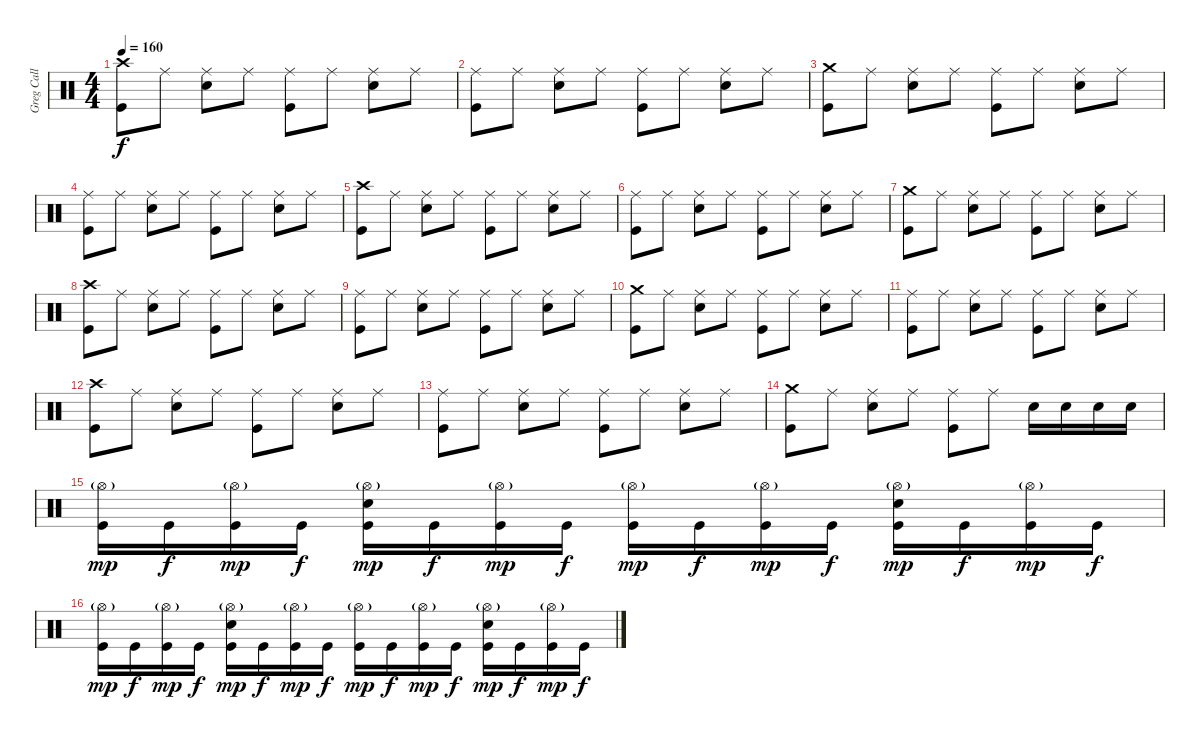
\track ("Greg Call (Drums)" "Greg Call ") {instrument percussion}
\staff {score}
\articulation defaults
\ts (4 4)
\tempo 160
\clef neutral
\ks c
("Crash high (hit)" "Kick (hit)").8{dy f} "Ride (middle)".8 ("Ride (middle)" "Electric Snare (hit)").8 "Ride (middle)".8 ("Ride (middle)" "Kick (hit)").8 "Ride (middle)".8 ("Ride (middle)" "Electric Snare (hit)").8 "Ride (middle)".8 |
("Ride (middle)" "Kick (hit)").8 "Ride (middle)".8 ("Ride (middle)" "Electric Snare (hit)").8 "Ride (middle)".8 ("Ride (middle)" "Kick (hit)").8 "Ride (middle)".8 ("Ride (middle)" "Electric Snare (hit)").8 "Ride (middle)".8 |
("Crash medium (hit)" "Kick (hit)").8 "Ride (middle)".8 ("Ride (middle)" "Electric Snare (hit)").8 "Ride (middle)".8 ("Ride (middle)" "Kick (hit)").8 "Ride (middle)".8 ("Ride (middle)" "Electric Snare (hit)").8 "Ride (middle)".8 |
("Ride (middle)" "Kick (hit)").8 "Ride (middle)".8 ("Ride (middle)" "Electric Snare (hit)").8 "Ride (middle)".8 ("Ride (middle)" "Kick (hit)").8 "Ride (middle)".8 ("Ride (middle)" "Electric Snare (hit)").8 "Ride (middle)".8 |
("Crash high (hit)" "Kick (hit)").8 "Ride (middle)".8 ("Ride (middle)" "Electric Snare (hit)").8 "Ride (middle)".8 ("Ride (middle)" "Kick (hit)").8 "Ride (middle)".8 ("Ride (middle)" "Electric Snare (hit)").8 "Ride (middle)".8 |
("Ride (middle)" "Kick (hit)").8 "Ride (middle)".8 ("Ride (middle)" "Electric Snare (hit)").8 "Ride (middle)".8 ("Ride (middle)" "Kick (hit)").8 "Ride (middle)".8 ("Ride (middle)" "Electric Snare (hit)").8 "Ride (middle)".8 |
("Crash medium (hit)" "Kick (hit)").8 "Ride (middle)".8 ("Ride (middle)" "Electric Snare (hit)").8 "Ride (middle)".8 ("Ride (middle)" "Kick (hit)").8 "Ride (middle)".8 ("Ride (middle)" "Electric Snare (hit)").8 "Ride (middle)".8 |
("Crash high (hit)" "Kick (hit)").8 "Ride (middle)".8 ("Ride (middle)" "Electric Snare (hit)").8 "Ride (middle)".8 ("Ride (middle)" "Kick (hit)").8 "Ride (middle)".8 ("Ride (middle)" "Electric Snare (hit)").8 "Ride (middle)".8 |
("Ride (middle)" "Kick (hit)").8 "Ride (middle)".8 ("Ride (middle)" "Electric Snare (hit)").8 "Ride (middle)".8 ("Ride (middle)" "Kick (hit)").8 "Ride (middle)".8 ("Ride (middle)" "Electric Snare (hit)").8 "Ride (middle)".8 |
("Crash medium (hit)" "Kick (hit)").8 "Ride (middle)".8 ("Ride (middle)" "Electric Snare (hit)").8 "Ride (middle)".8 ("Ride (middle)" "Kick (hit)").8 "Ride (middle)".8 ("Ride (middle)" "Electric Snare (hit)").8 "Ride (middle)".8 |
("Ride (middle)" "Kick (hit)").8 "Ride (middle)".8 ("Ride (middle)" "Electric Snare (hit)").8 "Ride (middle)".8 ("Ride (middle)" "Kick (hit)").8 "Ride (middle)".8 ("Ride (middle)" "Electric Snare (hit)").8 "Ride (middle)".8 |
("Crash high (hit)" "Kick (hit)").8 "Ride (middle)".8 ("Ride (middle)" "Electric Snare (hit)").8 "Ride (middle)".8 ("Ride (middle)" "Kick (hit)").8 "Ride (middle)".8 ("Ride (middle)" "Electric Snare (hit)").8 "Ride (middle)".8 |
("Ride (middle)" "Kick (hit)").8 "Ride (middle)".8 ("Ride (middle)" "Electric Snare (hit)").8 "Ride (middle)".8 ("Ride (middle)" "Kick (hit)").8 "Ride (middle)".8 ("Ride (middle)" "Electric Snare (hit)").8 "Ride (middle)".8 |
("Crash medium (hit)" "Kick (hit)").8 "Ride (middle)".8 ("Ride (middle)" "Electric Snare (hit)").8 "Ride (middle)".8{volume 16} ("Ride (middle)" "Kick (hit)").8 "Ride (middle)".8 "Electric Snare (hit)".16{volume 12} "Electric Snare (hit)".16 "Electric Snare (hit)".16 "Electric Snare (hit)".16 |
("Hi-Hat (open)"{g} "Kick (hit)").16{dy mp} "Kick (hit)".16{dy f} ("Hi-Hat (open)"{g} "Kick (hit)").16{dy mp} "Kick (hit)".16{dy f} ("Hi-Hat (open)"{g} "Electric Snare (hit)" "Kick (hit)").16{dy mp} "Kick (hit)".16{dy f} ("Hi-Hat (open)"{g} "Kick (hit)").16{dy mp} "Kick (hit)".16{dy f} ("Hi-Hat (open)"{g} "Kick (hit)").16{dy mp} "Kick (hit)".16{dy f} ("Hi-Hat (open)"{g} "Kick (hit)").16{dy mp} "Kick (hit)".16{dy f} ("Hi-Hat (open)"{g} "Electric Snare (hit)" "Kick (hit)").16{dy mp} "Kick (hit)".16{dy f} ("Hi-Hat (open)"{g} "Kick (hit)").16{dy mp} "Kick (hit)".16{dy f} |
("Hi-Hat (open)"{g} "Kick (hit)").16{dy mp} "Kick (hit)".16{dy f} ("Hi-Hat (open)"{g} "Kick (hit)").16{dy mp} "Kick (hit)".16{dy f} ("Hi-Hat (open)"{g} "Electric Snare (hit)" "Kick (hit)").16{dy mp} "Kick (hit)".16{dy f} ("Hi-Hat (open)"{g} "Kick (hit)").16{dy mp} "Kick (hit)".16{dy f} ("Hi-Hat (open)"{g} "Kick (hit)").16{dy mp} "Kick (hit)".16{dy f} ("Hi-Hat (open)"{g} "Kick (hit)").16{dy mp} "Kick (hit)".16{dy f} ("Hi-Hat (open)"{g} "Electric Snare (hit)" "Kick (hit)").16{dy mp} "Kick (hit)".16{dy f} ("Hi-Hat (open)"{g} "Kick (hit)").16{dy mp} "Kick (hit)".16{dy f}
